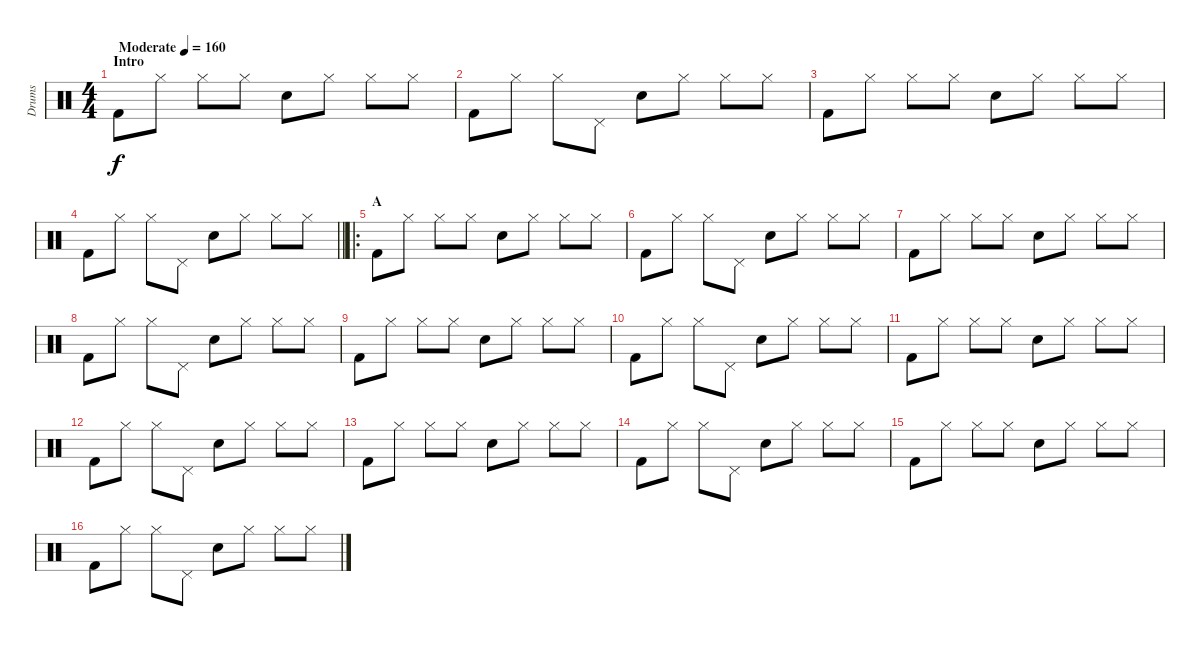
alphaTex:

\track ("Drums" "Drums") {instrument percussion}
\staff {score}
\articulation defaults
\ts (4 4)
\section ("" "Intro")
\tempo (160 "Moderate")
\clef neutral
\ks c "Kick (hit) 2".8{dy f} "Hi-Hat (closed)".8 "Hi-Hat (closed)".8 "Hi-Hat (closed)".8 "Electric Snare (hit)".8 "Hi-Hat (closed)".8 "Hi-Hat (closed)".8 "Hi-Hat (closed)".8
|
"Kick (hit) 2".8 "Hi-Hat (closed)".8 "Hi-Hat (closed)".8 "Pedal Hi-Hat (hit)".8 "Electric Snare (hit)".8 "Hi-Hat (closed)".8 "Hi-Hat (closed)".8 "Hi-Hat (closed)".8 |
"Kick (hit) 2".8 "Hi-Hat (closed)".8 "Hi-Hat (closed)".8 "Hi-Hat (closed)".8 "Electric Snare (hit)".8 "Hi-Hat (closed)".8 "Hi-Hat (closed)".8 "Hi-Hat (closed)".8 |
\barLineRight lightlight "Kick (hit) 2".8 "Hi-Hat (closed)".8 "Hi-Hat (closed)".8 "Pedal Hi-Hat (hit)".8 "Electric Snare (hit)".8 "Hi-Hat (closed)".8 "Hi-Hat (closed)".8 "Hi-Hat (closed)".8
|
\ro
\section ("" "A")
"Kick (hit) 2".8 "Hi-Hat (closed)".8 "Hi-Hat (closed)".8 "Hi-Hat (closed)".8 "Electric Snare (hit)".8 "Hi-Hat (closed)".8 "Hi-Hat (closed)".8 "Hi-Hat (closed)".8 |
"Kick (hit) 2".8 "Hi-Hat (closed)".8 "Hi-Hat (closed)".8 "Pedal Hi-Hat (hit)".8 "Electric Snare (hit)".8 "Hi-Hat (closed)".8 "Hi-Hat (closed)".8 "Hi-Hat (closed)".8 |
"Kick (hit) 2".8 "Hi-Hat (closed)".8 "Hi-Hat (closed)".8 "Hi-Hat (closed)".8 "Electric Snare (hit)".8 "Hi-Hat (closed)".8 "Hi-Hat (closed)".8 "Hi-Hat (closed)".8 |
"Kick (hit) 2".8 "Hi-Hat (closed)".8 "Hi-Hat (closed)".8 "Pedal Hi-Hat (hit)".8 "Electric Snare (hit)".8 "Hi-Hat (closed)".8 "Hi-Hat (closed)".8 "Hi-Hat (closed)".8 |
"Kick (hit) 2".8 "Hi-Hat (closed)".8 "Hi-Hat (closed)".8 "Hi-Hat (closed)".8 "Electric Snare (hit)".8 "Hi-Hat (closed)".8 "Hi-Hat (closed)".8 "Hi-Hat (closed)".8 |
"Kick (hit) 2".8 "Hi-Hat (closed)".8 "Hi-Hat (closed)".8 "Pedal Hi-Hat (hit)".8 "Electric Snare (hit)".8 "Hi-Hat (closed)".8 "Hi-Hat (closed)".8 "Hi-Hat (closed)".8 |
"Kick (hit) 2".8 "Hi-Hat (closed)".8 "Hi-Hat (closed)".8 "Hi-Hat (closed)".8 "Electric Snare (hit)".8 "Hi-Hat (closed)".8 "Hi-Hat (closed)".8 "Hi-Hat (closed)".8 |
"Kick (hit) 2".8 "Hi-Hat (closed)".8 "Hi-Hat (closed)".8 "Pedal Hi-Hat (hit)".8 "Electric Snare (hit)".8 "Hi-Hat (closed)".8 "Hi-Hat (closed)".8 "Hi-Hat (closed)".8 |
"Kick (hit) 2".8 "Hi-Hat (closed)".8 "Hi-Hat (closed)".8 "Hi-Hat (closed)".8 "Electric Snare (hit)".8 "Hi-Hat (closed)".8 "Hi-Hat (closed)".8 "Hi-Hat (closed)".8 |
"Kick (hit) 2".8 "Hi-Hat (closed)".8 "Hi-Hat (closed)".8 "Pedal Hi-Hat (hit)".8 "Electric Snare (hit)".8 "Hi-Hat (closed)".8 "Hi-Hat (closed)".8 "Hi-Hat (closed)".8 |
"Kick (hit) 2".8 "Hi-Hat (closed)".8 "Hi-Hat (closed)".8 "Hi-Hat (closed)".8 "Electric Snare (hit)".8 "Hi-Hat (closed)".8 "Hi-Hat (closed)".8 "Hi-Hat (closed)".8 |
"Kick (hit) 2".8 "Hi-Hat (closed)".8 "Hi-Hat (closed)".8 "Pedal Hi-Hat (hit)".8 "Electric Snare (hit)".8 "Hi-Hat (closed)".8 "Hi-Hat (closed)".8 "Hi-Hat (closed)".8
